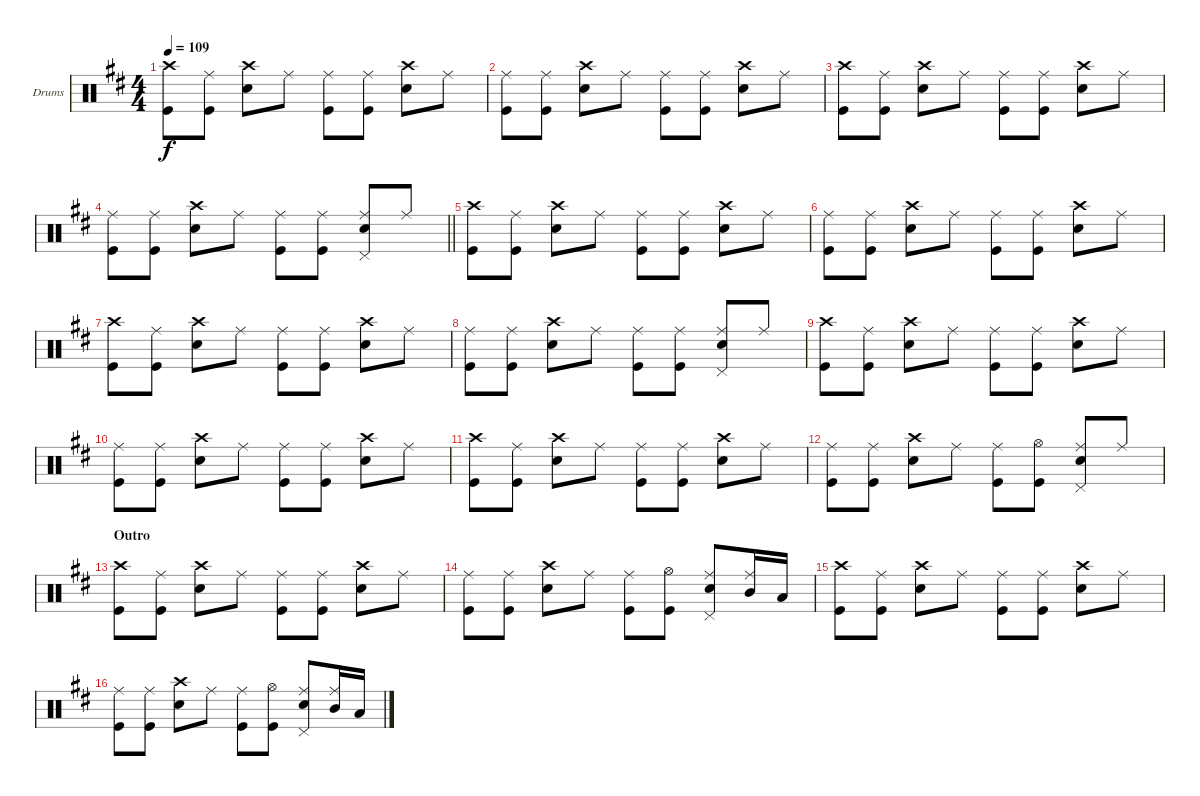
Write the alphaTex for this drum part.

\bracketExtendMode groupsimilarinstruments
\firstSystemTrackNameOrientation horizontal
\otherSystemsTrackNameOrientation horizontal
\track ("Drumkit" "Drums") {instrument percussion}
\staff {score}
\articulation defaults
\ts (4 4)
\tempo 109
\clef neutral
\ks d
("Kick (hit)" "Crash high (hit)").8{dy f} ("Kick (hit)" "Ride (middle)").8 ("Snare (hit) 2" "Crash high (hit)").8 "Ride (middle)".8 ("Kick (hit)" "Ride (middle)").8 ("Kick (hit)" "Ride (middle)").8 ("Snare (hit) 2" "Crash high (hit)").8 "Ride (middle)".8 |
("Kick (hit)" "Ride (middle)").8 ("Kick (hit)" "Ride (middle)").8 ("Snare (hit) 2" "Crash high (hit)").8 "Ride (middle)".8 ("Kick (hit)" "Ride (middle)").8 ("Kick (hit)" "Ride (middle)").8 ("Snare (hit) 2" "Crash high (hit)").8 "Ride (middle)".8 |
("Kick (hit)" "Crash high (hit)").8 ("Kick (hit)" "Ride (middle)").8 ("Snare (hit) 2" "Crash high (hit)").8 "Ride (middle)".8 ("Kick (hit)" "Ride (middle)").8 ("Kick (hit)" "Ride (middle)").8 ("Snare (hit) 2" "Crash high (hit)").8 "Ride (middle)".8 |
\barLineRight lightlight
("Kick (hit)" "Ride (middle)").8 ("Kick (hit)" "Ride (middle)").8 ("Snare (hit) 2" "Crash high (hit)").8 "Ride (middle)".8 ("Kick (hit)" "Ride (middle)").8 ("Kick (hit)" "Ride (middle)").8 ("Snare (hit) 2" "Ride (middle)" "Pedal Hi-Hat (hit)").8 "Ride (middle)".8 |
("Kick (hit)" "Crash high (hit)").8 ("Kick (hit)" "Ride (middle)").8 ("Snare (hit) 2" "Crash high (hit)").8 "Ride (middle)".8 ("Kick (hit)" "Ride (middle)").8 ("Kick (hit)" "Ride (middle)").8 ("Snare (hit) 2" "Crash high (hit)").8 "Ride (middle)".8 |
("Kick (hit)" "Ride (middle)").8 ("Kick (hit)" "Ride (middle)").8 ("Snare (hit) 2" "Crash high (hit)").8 "Ride (middle)".8 ("Kick (hit)" "Ride (middle)").8 ("Kick (hit)" "Ride (middle)").8 ("Snare (hit) 2" "Crash high (hit)").8 "Ride (middle)".8 |
("Kick (hit)" "Crash high (hit)").8 ("Kick (hit)" "Ride (middle)").8 ("Snare (hit) 2" "Crash high (hit)").8 "Ride (middle)".8 ("Kick (hit)" "Ride (middle)").8 ("Kick (hit)" "Ride (middle)").8 ("Snare (hit) 2" "Crash high (hit)").8 "Ride (middle)".8 |
("Kick (hit)" "Ride (middle)").8 ("Kick (hit)" "Ride (middle)").8 ("Snare (hit) 2" "Crash high (hit)").8 "Ride (middle)".8 ("Kick (hit)" "Ride (middle)").8 ("Kick (hit)" "Ride (middle)").8 ("Snare (hit) 2" "Pedal Hi-Hat (hit)" "Ride (middle)").8 "Ride (middle)".8 |
("Kick (hit)" "Crash high (hit)").8 ("Kick (hit)" "Ride (middle)").8 ("Snare (hit) 2" "Crash high (hit)").8 "Ride (middle)".8 ("Kick (hit)" "Ride (middle)").8 ("Kick (hit)" "Ride (middle)").8 ("Snare (hit) 2" "Crash high (hit)").8 "Ride (middle)".8 |
("Kick (hit)" "Ride (middle)").8 ("Kick (hit)" "Ride (middle)").8 ("Snare (hit) 2" "Crash high (hit)").8 "Ride (middle)".8 ("Kick (hit)" "Ride (middle)").8 ("Kick (hit)" "Ride (middle)").8 ("Snare (hit) 2" "Crash high (hit)").8 "Ride (middle)".8 |
("Kick (hit)" "Crash high (hit)").8 ("Kick (hit)" "Ride (middle)").8 ("Snare (hit) 2" "Crash high (hit)").8 "Ride (middle)".8 ("Kick (hit)" "Ride (middle)").8 ("Kick (hit)" "Ride (middle)").8 ("Snare (hit) 2" "Crash high (hit)").8 "Ride (middle)".8 |
("Kick (hit)" "Ride (middle)").8 ("Kick (hit)" "Ride (middle)").8 ("Snare (hit) 2" "Crash high (hit)").8 "Ride (middle)".8 ("Kick (hit)" "Ride (middle)").8 ("Kick (hit)" "Hi-Hat (open)").8 ("Snare (hit) 2" "Pedal Hi-Hat (hit)" "Ride (middle)").8 "Ride (middle)".8 |
\section ("" "Outro")
("Kick (hit)" "Crash high (hit)").8 ("Kick (hit)" "Ride (middle)").8 ("Snare (hit) 2" "Crash high (hit)").8 "Ride (middle)".8 ("Kick (hit)" "Ride (middle)").8 ("Kick (hit)" "Ride (middle)").8 ("Snare (hit) 2" "Crash high (hit)").8 "Ride (middle)".8 |
("Kick (hit)" "Ride (middle)").8 ("Kick (hit)" "Ride (middle)").8 ("Snare (hit) 2" "Crash high (hit)").8 "Ride (middle)".8 ("Kick (hit)" "Ride (middle)").8 ("Kick (hit)" "Hi-Hat (open)").8 ("Snare (hit) 2" "Pedal Hi-Hat (hit)" "Ride (middle)").8 ("Ride (middle)" "Mid Tom (hit)").16 "Low Tom (hit)".16 |
("Kick (hit)" "Crash high (hit)").8 ("Kick (hit)" "Ride (middle)").8 ("Snare (hit) 2" "Crash high (hit)").8 "Ride (middle)".8 ("Kick (hit)" "Ride (middle)").8 ("Kick (hit)" "Ride (middle)").8 ("Snare (hit) 2" "Crash high (hit)").8 "Ride (middle)".8 |
("Kick (hit)" "Ride (middle)").8 ("Kick (hit)" "Ride (middle)").8 ("Snare (hit) 2" "Crash high (hit)").8 "Ride (middle)".8 ("Kick (hit)" "Ride (middle)").8 ("Kick (hit)" "Hi-Hat (open)").8 ("Snare (hit) 2" "Pedal Hi-Hat (hit)" "Ride (middle)").8 ("Ride (middle)" "Mid Tom (hit)").16 "Low Tom (hit)".16
